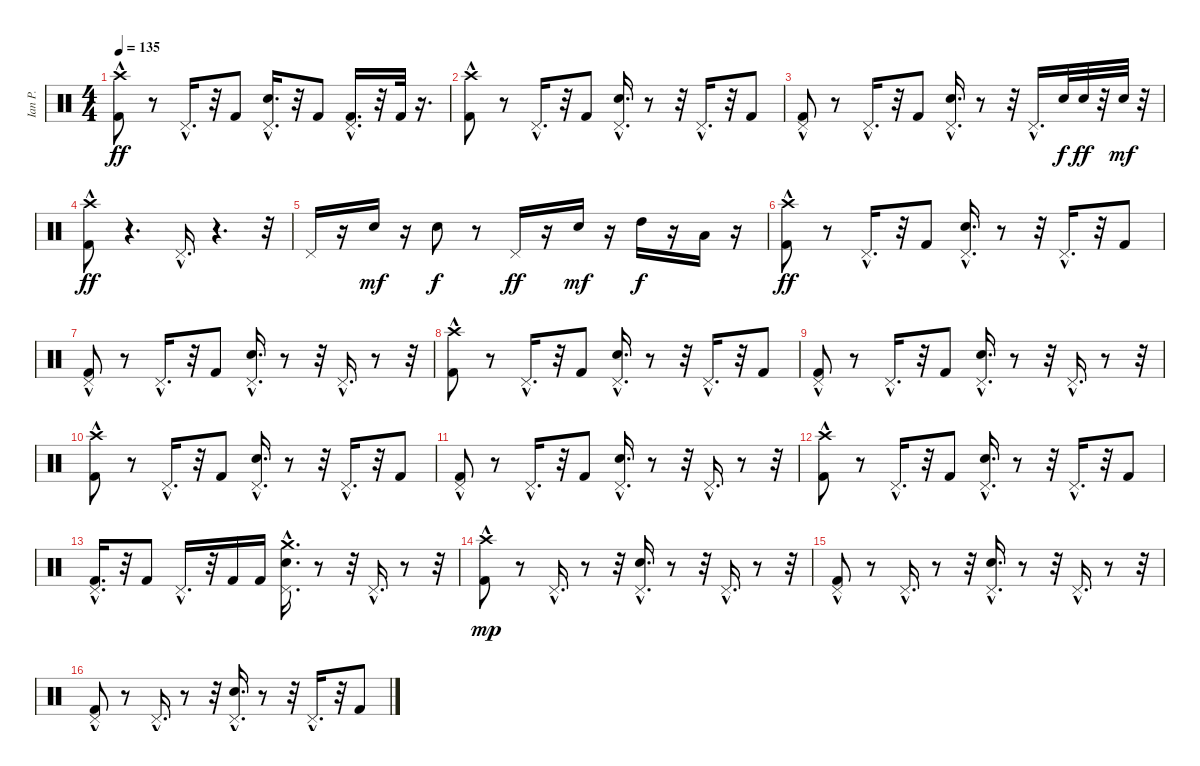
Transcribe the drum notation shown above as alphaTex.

\track ("Ian P." "Ian P.") {instrument percussion}
\staff {score}
\articulation defaults
\ts (4 4)
\tempo 135
\clef neutral
\ks c
("Kick (hit) 2" "Crash high (hit)"{hac}).8{dy ff} r.8 "Pedal Hi-Hat (hit)"{hac}.16{d} r.32 "Kick (hit) 2".8 ("Snare (hit) 2"{hac} "Pedal Hi-Hat (hit)"{hac}).16{d} r.32 "Kick (hit) 2".8 ("Pedal Hi-Hat (hit)"{hac} "Kick (hit) 2").16{d} r.32 "Kick (hit) 2".32 r.16{d} |
("Kick (hit) 2" "Crash high (hit)"{hac}).8 r.8 "Pedal Hi-Hat (hit)"{hac}.16{d} r.32 "Kick (hit) 2".8 ("Snare (hit) 2"{hac} "Pedal Hi-Hat (hit)"{hac}).16{d} r.8 r.32 "Pedal Hi-Hat (hit)"{hac}.16{d} r.32 "Kick (hit) 2".8 |
("Kick (hit) 2" "Pedal Hi-Hat (hit)"{hac}).8 r.8 "Pedal Hi-Hat (hit)"{hac}.16{d} r.32 "Kick (hit) 2".8 ("Snare (hit) 2"{hac} "Pedal Hi-Hat (hit)"{hac}).16{d} r.8 r.32 "Pedal Hi-Hat (hit)"{hac}.16{d} "Snare (hit) 2".32{dy f} "Snare (hit) 2".32{dy ff} r.32 "Snare (hit) 2".32{dy mf} r.32 |
("Kick (hit) 2" "Crash high (hit)"{hac}).8{dy ff} r.4{d} "Pedal Hi-Hat (hit)"{hac}.16{d} r.4{d} r.32 |
"Pedal Hi-Hat (hit)".16 r.16 "Snare (hit) 2".16{dy mf} r.16 "Snare (hit) 2".8{dy f} r.8 "Pedal Hi-Hat (hit)".16{dy ff} r.16 "Snare (hit) 2".16{dy mf} r.16 "High Tom (hit)".16{dy f} r.16 "Low Floor Tom (hit)".16 r.16 |
("Kick (hit) 2" "Crash high (hit)"{hac}).8{dy ff} r.8 "Pedal Hi-Hat (hit)"{hac}.16{d} r.32 "Kick (hit) 2".8 ("Snare (hit) 2"{hac} "Pedal Hi-Hat (hit)"{hac}).16{d} r.8 r.32 "Pedal Hi-Hat (hit)"{hac}.16{d} r.32 "Kick (hit) 2".8 |
("Kick (hit) 2" "Pedal Hi-Hat (hit)"{hac}).8 r.8 "Pedal Hi-Hat (hit)"{hac}.16{d} r.32 "Kick (hit) 2".8 ("Snare (hit) 2"{hac} "Pedal Hi-Hat (hit)"{hac}).16{d} r.8 r.32 "Pedal Hi-Hat (hit)"{hac}.16{d} r.8 r.32 |
("Kick (hit) 2" "Crash high (hit)"{hac}).8 r.8 "Pedal Hi-Hat (hit)"{hac}.16{d} r.32 "Kick (hit) 2".8 ("Snare (hit) 2"{hac} "Pedal Hi-Hat (hit)"{hac}).16{d} r.8 r.32 "Pedal Hi-Hat (hit)"{hac}.16{d} r.32 "Kick (hit) 2".8 |
("Kick (hit) 2" "Pedal Hi-Hat (hit)"{hac}).8 r.8 "Pedal Hi-Hat (hit)"{hac}.16{d} r.32 "Kick (hit) 2".8 ("Snare (hit) 2"{hac} "Pedal Hi-Hat (hit)"{hac}).16{d} r.8 r.32 "Pedal Hi-Hat (hit)"{hac}.16{d} r.8 r.32 |
("Kick (hit) 2" "Crash high (hit)"{hac}).8 r.8 "Pedal Hi-Hat (hit)"{hac}.16{d} r.32 "Kick (hit) 2".8 ("Snare (hit) 2"{hac} "Pedal Hi-Hat (hit)"{hac}).16{d} r.8 r.32 "Pedal Hi-Hat (hit)"{hac}.16{d} r.32 "Kick (hit) 2".8 |
("Kick (hit) 2" "Pedal Hi-Hat (hit)"{hac}).8 r.8 "Pedal Hi-Hat (hit)"{hac}.16{d} r.32 "Kick (hit) 2".8 ("Snare (hit) 2"{hac} "Pedal Hi-Hat (hit)"{hac}).16{d} r.8 r.32 "Pedal Hi-Hat (hit)"{hac}.16{d} r.8 r.32 |
("Kick (hit) 2" "Crash high (hit)"{hac}).8 r.8 "Pedal Hi-Hat (hit)"{hac}.16{d} r.32 "Kick (hit) 2".8 ("Snare (hit) 2"{hac} "Pedal Hi-Hat (hit)"{hac}).16{d} r.8 r.32 "Pedal Hi-Hat (hit)"{hac}.16{d} r.32 "Kick (hit) 2".8 |
("Kick (hit) 2" "Pedal Hi-Hat (hit)"{hac}).16{d} r.32 "Kick (hit) 2".8 "Pedal Hi-Hat (hit)"{hac}.16{d} r.32 "Kick (hit) 2".16 "Kick (hit) 2".16 ("Snare (hit) 2"{hac} "Crash medium (hit)" "Pedal Hi-Hat (hit)"{hac}).16{d} r.8 r.32 "Pedal Hi-Hat (hit)"{hac}.16{d} r.8 r.32 |
("Kick (hit) 2" "Crash high (hit)"{hac}).8{dy mp} r.8 "Pedal Hi-Hat (hit)"{hac}.16{d} r.8 r.32 ("Snare (hit) 2"{hac} "Pedal Hi-Hat (hit)"{hac}).16{d} r.8 r.32 "Pedal Hi-Hat (hit)"{hac}.16{d} r.8 r.32 |
("Kick (hit) 2" "Pedal Hi-Hat (hit)"{hac}).8 r.8 "Pedal Hi-Hat (hit)"{hac}.16{d} r.8 r.32 ("Snare (hit) 2"{hac} "Pedal Hi-Hat (hit)"{hac}).16{d} r.8 r.32 "Pedal Hi-Hat (hit)"{hac}.16{d} r.8 r.32 |
("Kick (hit) 2" "Pedal Hi-Hat (hit)"{hac}).8 r.8 "Pedal Hi-Hat (hit)"{hac}.16{d} r.8 r.32 ("Snare (hit) 2"{hac} "Pedal Hi-Hat (hit)"{hac}).16{d} r.8 r.32 "Pedal Hi-Hat (hit)"{hac}.16{d} r.32 "Kick (hit) 2".8
